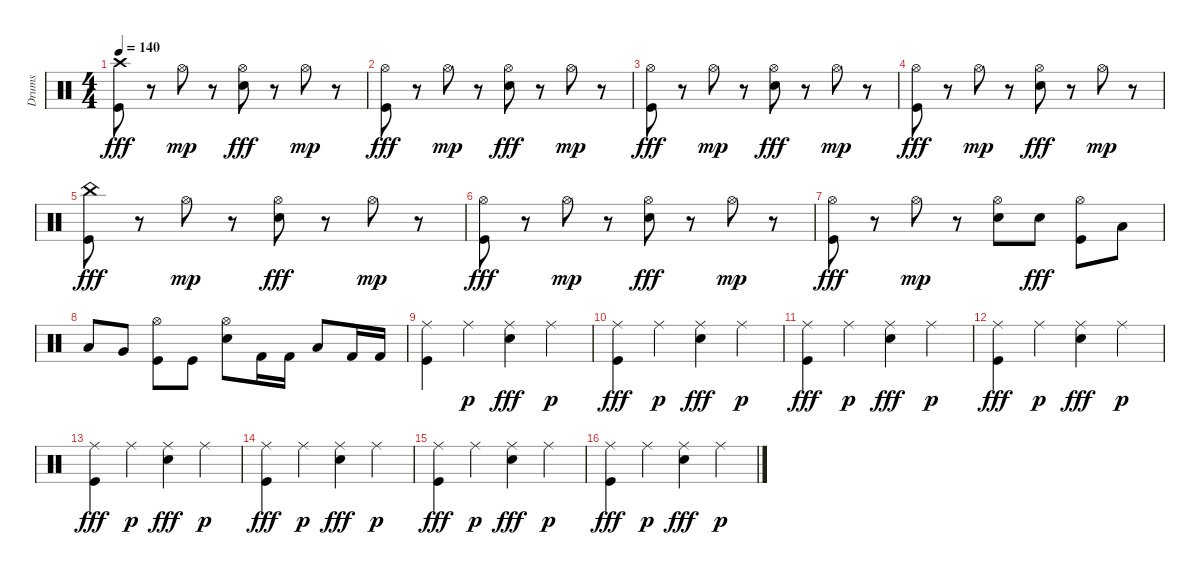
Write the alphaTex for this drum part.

\track ("Drums" "Drums") {instrument percussion}
\staff {score}
\articulation defaults
\ts (4 4)
\tempo 140
\clef neutral
\ks c
("Crash high (hit)" "Kick (hit)").8{dy fff} r.8 "Hi-Hat (open)".8{dy mp} r.8 ("Hi-Hat (open)" "Snare (hit) 2").8{dy fff} r.8 "Hi-Hat (open)".8{dy mp} r.8 |
("Hi-Hat (open)" "Kick (hit)").8{dy fff} r.8 "Hi-Hat (open)".8{dy mp} r.8 ("Hi-Hat (open)" "Snare (hit) 2").8{dy fff} r.8 "Hi-Hat (open)".8{dy mp} r.8 |
("Hi-Hat (open)" "Kick (hit)").8{dy fff} r.8 "Hi-Hat (open)".8{dy mp} r.8 ("Hi-Hat (open)" "Snare (hit) 2").8{dy fff} r.8 "Hi-Hat (open)".8{dy mp} r.8 |
("Hi-Hat (open)" "Kick (hit)").8{dy fff} r.8 "Hi-Hat (open)".8{dy mp} r.8 ("Hi-Hat (open)" "Snare (hit) 2").8{dy fff} r.8 "Hi-Hat (open)".8{dy mp} r.8 |
("China (hit)" "Kick (hit)").8{dy fff} r.8 "Hi-Hat (open)".8{dy mp} r.8 ("Hi-Hat (open)" "Snare (hit) 2").8{dy fff} r.8 "Hi-Hat (open)".8{dy mp} r.8 |
("Hi-Hat (open)" "Kick (hit)").8{dy fff} r.8 "Hi-Hat (open)".8{dy mp} r.8 ("Hi-Hat (open)" "Snare (hit) 2").8{dy fff} r.8 "Hi-Hat (open)".8{dy mp} r.8 |
("Hi-Hat (open)" "Kick (hit)").8{dy fff} r.8 "Hi-Hat (open)".8{dy mp} r.8 ("Hi-Hat (open)" "Snare (hit) 2").8 "Snare (hit) 2".8{dy fff} ("Hi-Hat (open)" "Kick (hit)").8 "Low Tom (hit)".8 |
"Low Tom (hit)".8 "Very Low Tom (hit)".8 ("Hi-Hat (open)" "Kick (hit)").8 "Kick (hit)".8 ("Hi-Hat (open)" "Snare (hit) 2").8 "Kick (hit) 2".16 "Kick (hit) 2".16 "Low Tom (hit)".8 "Kick (hit) 2".16 "Kick (hit) 2".16 |
("Ride (middle)" "Kick (hit)").4 "Ride (middle)".4{dy p} ("Ride (middle)" "Snare (hit) 2").4{dy fff} "Ride (middle)".4{dy p} |
("Ride (middle)" "Kick (hit)").4{dy fff} "Ride (middle)".4{dy p} ("Ride (middle)" "Snare (hit) 2").4{dy fff} "Ride (middle)".4{dy p} |
("Ride (middle)" "Kick (hit)").4{dy fff} "Ride (middle)".4{dy p} ("Ride (middle)" "Snare (hit) 2").4{dy fff} "Ride (middle)".4{dy p} |
("Ride (middle)" "Kick (hit)").4{dy fff} "Ride (middle)".4{dy p} ("Ride (middle)" "Snare (hit) 2").4{dy fff} "Ride (middle)".4{dy p} |
("Ride (middle)" "Kick (hit)").4{dy fff} "Ride (middle)".4{dy p} ("Ride (middle)" "Snare (hit) 2").4{dy fff} "Ride (middle)".4{dy p} |
("Ride (middle)" "Kick (hit)").4{dy fff} "Ride (middle)".4{dy p} ("Ride (middle)" "Snare (hit) 2").4{dy fff} "Ride (middle)".4{dy p} |
("Ride (middle)" "Kick (hit)").4{dy fff} "Ride (middle)".4{dy p} ("Ride (middle)" "Snare (hit) 2").4{dy fff} "Ride (middle)".4{dy p} |
("Ride (middle)" "Kick (hit)").4{dy fff} "Ride (middle)".4{dy p} ("Ride (middle)" "Snare (hit) 2").4{dy fff} "Ride (middle)".4{dy p}
